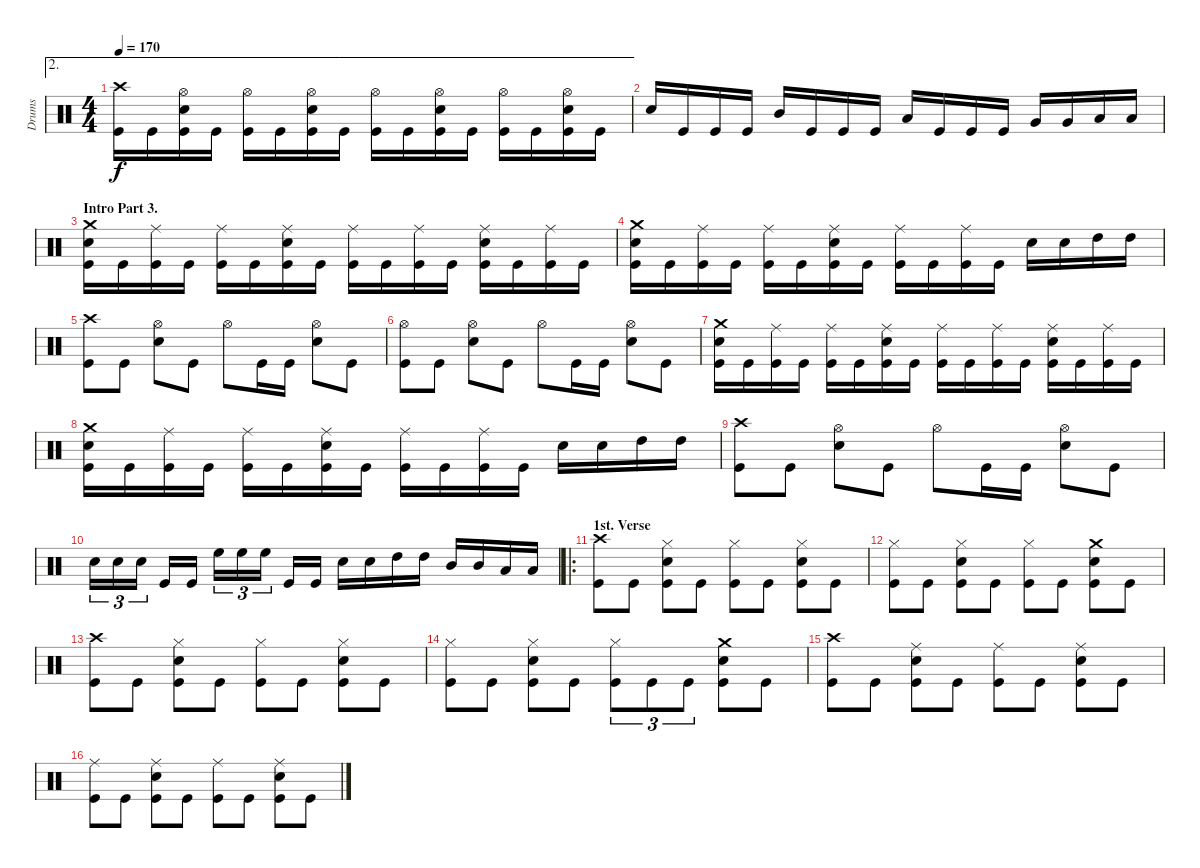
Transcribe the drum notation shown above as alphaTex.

\track ("Drums" "Drums") {instrument percussion}
\staff {score}
\articulation defaults
\ae 2
\ts (4 4)
\tempo 170
\clef neutral
\ks c
("Crash high (hit)" "Kick (hit)").16{dy f} "Kick (hit)".16 ("Hi-Hat (open)" "Snare (hit) 2" "Kick (hit)").16 "Kick (hit)".16 ("Hi-Hat (open)" "Kick (hit)").16 "Kick (hit)".16 ("Hi-Hat (open)" "Snare (hit) 2" "Kick (hit)").16 "Kick (hit)".16 ("Hi-Hat (open)" "Kick (hit)").16 "Kick (hit)".16 ("Hi-Hat (open)" "Snare (hit) 2" "Kick (hit)").16 "Kick (hit)".16 ("Hi-Hat (open)" "Kick (hit)").16 "Kick (hit)".16 ("Hi-Hat (open)" "Snare (hit) 2" "Kick (hit)").16 "Kick (hit)".16 |
"Snare (hit) 2".16 "Kick (hit)".16 "Kick (hit)".16 "Kick (hit)".16 "Mid Tom (hit)".16 "Kick (hit)".16 "Kick (hit)".16 "Kick (hit)".16 "Low Tom (hit)".16 "Kick (hit)".16 "Kick (hit)".16 "Kick (hit)".16 "Very Low Tom (hit)".16 "Very Low Tom (hit)".16 "Low Floor Tom (hit)".16 "Low Floor Tom (hit)".16 |
\section ("" "Intro Part 3.")
("Crash medium (hit)" "Snare (hit) 2" "Kick (hit)").16 "Kick (hit)".16 ("Ride (middle)" "Kick (hit)").16 "Kick (hit)".16 ("Ride (middle)" "Kick (hit)").16 "Kick (hit)".16 ("Ride (middle)" "Snare (hit) 2" "Kick (hit)").16 "Kick (hit)".16 ("Ride (middle)" "Kick (hit)").16 "Kick (hit)".16 ("Ride (middle)" "Kick (hit)").16 "Kick (hit)".16 ("Ride (middle)" "Snare (hit) 2" "Kick (hit)").16 "Kick (hit)".16 ("Ride (middle)" "Kick (hit)").16 "Kick (hit)".16 |
("Crash medium (hit)" "Snare (hit) 2" "Kick (hit)").16 "Kick (hit)".16 ("Ride (middle)" "Kick (hit)").16 "Kick (hit)".16 ("Ride (middle)" "Kick (hit)").16 "Kick (hit)".16 ("Ride (middle)" "Snare (hit) 2" "Kick (hit)").16 "Kick (hit)".16 ("Ride (middle)" "Kick (hit)").16 "Kick (hit)".16 ("Ride (middle)" "Kick (hit)").16 "Kick (hit)".16 "Snare (hit) 2".16 "Snare (hit) 2".16 "High Tom (hit)".16 "High Tom (hit)".16 |
("Crash high (hit)" "Kick (hit)").8 "Kick (hit)".8 ("Hi-Hat (open)" "Snare (hit) 2").8 "Kick (hit)".8 "Hi-Hat (open)".8 "Kick (hit)".16 "Kick (hit)".16 ("Hi-Hat (open)" "Snare (hit) 2").8 "Kick (hit)".8 |
("Hi-Hat (open)" "Kick (hit)").8 "Kick (hit)".8 ("Hi-Hat (open)" "Snare (hit) 2").8 "Kick (hit)".8 "Hi-Hat (open)".8 "Kick (hit)".16 "Kick (hit)".16 ("Hi-Hat (open)" "Snare (hit) 2").8 "Kick (hit)".8 |
("Crash medium (hit)" "Snare (hit) 2" "Kick (hit)").16 "Kick (hit)".16 ("Ride (middle)" "Kick (hit)").16 "Kick (hit)".16 ("Ride (middle)" "Kick (hit)").16 "Kick (hit)".16 ("Ride (middle)" "Snare (hit) 2" "Kick (hit)").16 "Kick (hit)".16 ("Ride (middle)" "Kick (hit)").16 "Kick (hit)".16 ("Ride (middle)" "Kick (hit)").16 "Kick (hit)".16 ("Ride (middle)" "Snare (hit) 2" "Kick (hit)").16 "Kick (hit)".16 ("Ride (middle)" "Kick (hit)").16 "Kick (hit)".16 |
("Crash medium (hit)" "Snare (hit) 2" "Kick (hit)").16 "Kick (hit)".16 ("Ride (middle)" "Kick (hit)").16 "Kick (hit)".16 ("Ride (middle)" "Kick (hit)").16 "Kick (hit)".16 ("Ride (middle)" "Snare (hit) 2" "Kick (hit)").16 "Kick (hit)".16 ("Ride (middle)" "Kick (hit)").16 "Kick (hit)".16 ("Ride (middle)" "Kick (hit)").16 "Kick (hit)".16 "Snare (hit) 2".16 "Snare (hit) 2".16 "High Tom (hit)".16 "High Tom (hit)".16 |
("Crash high (hit)" "Kick (hit)").8 "Kick (hit)".8 ("Hi-Hat (open)" "Snare (hit) 2").8 "Kick (hit)".8 "Hi-Hat (open)".8 "Kick (hit)".16 "Kick (hit)".16 ("Hi-Hat (open)" "Snare (hit) 2").8 "Kick (hit)".8 |
"Snare (hit) 2".16{tu (3 2)} "Snare (hit) 2".16{tu (3 2)} "Snare (hit) 2".16{tu (3 2)} "Kick (hit)".16 "Kick (hit)".16 "High Floor Tom (hit)".16{tu (3 2)} "High Floor Tom (hit)".16{tu (3 2)} "High Floor Tom (hit)".16{tu (3 2)} "Kick (hit)".16 "Kick (hit)".16 "Snare (hit) 2".16 "Snare (hit) 2".16 "High Tom (hit)".16 "High Tom (hit)".16 "Mid Tom (hit)".16 "Mid Tom (hit)".16 "Low Tom (hit)".16 "Low Tom (hit)".16 |
\ro
\section ("" "1st. Verse")
("Crash high (hit)" "Kick (hit)").8 "Kick (hit)".8 ("Hi-Hat (closed)" "Snare (hit) 2" "Kick (hit)").8 "Kick (hit)".8 ("Hi-Hat (closed)" "Kick (hit)").8 "Kick (hit)".8 ("Hi-Hat (closed)" "Snare (hit) 2" "Kick (hit)").8 "Kick (hit)".8 |
("Hi-Hat (closed)" "Kick (hit)").8 "Kick (hit)".8 ("Hi-Hat (closed)" "Snare (hit) 2" "Kick (hit)").8 "Kick (hit)".8 ("Hi-Hat (closed)" "Kick (hit)").8 "Kick (hit)".8 ("Crash medium (hit)" "Snare (hit) 2" "Kick (hit)").8 "Kick (hit)".8 |
("Crash high (hit)" "Kick (hit)").8 "Kick (hit)".8 ("Hi-Hat (closed)" "Snare (hit) 2" "Kick (hit)").8 "Kick (hit)".8 ("Hi-Hat (closed)" "Kick (hit)").8 "Kick (hit)".8 ("Hi-Hat (closed)" "Snare (hit) 2" "Kick (hit)").8 "Kick (hit)".8 |
("Hi-Hat (closed)" "Kick (hit)").8 "Kick (hit)".8 ("Hi-Hat (closed)" "Snare (hit) 2" "Kick (hit)").8 "Kick (hit)".8 ("Hi-Hat (closed)" "Kick (hit)").8{tu (3 2)} "Kick (hit)".8{tu (3 2)} "Kick (hit)".8{tu (3 2)} ("Crash medium (hit)" "Snare (hit) 2" "Kick (hit)").8 "Kick (hit)".8 |
("Crash high (hit)" "Kick (hit)").8 "Kick (hit)".8 ("Ride (middle)" "Snare (hit) 2" "Kick (hit)").8 "Kick (hit)".8 ("Ride (middle)" "Kick (hit)").8 "Kick (hit)".8 ("Ride (middle)" "Snare (hit) 2" "Kick (hit)").8 "Kick (hit)".8 |
("Ride (middle)" "Kick (hit)").8 "Kick (hit)".8 ("Ride (middle)" "Snare (hit) 2" "Kick (hit)").8 "Kick (hit)".8 ("Ride (middle)" "Kick (hit)").8 "Kick (hit)".8 ("Ride (middle)" "Snare (hit) 2" "Kick (hit)").8 "Kick (hit)".8
